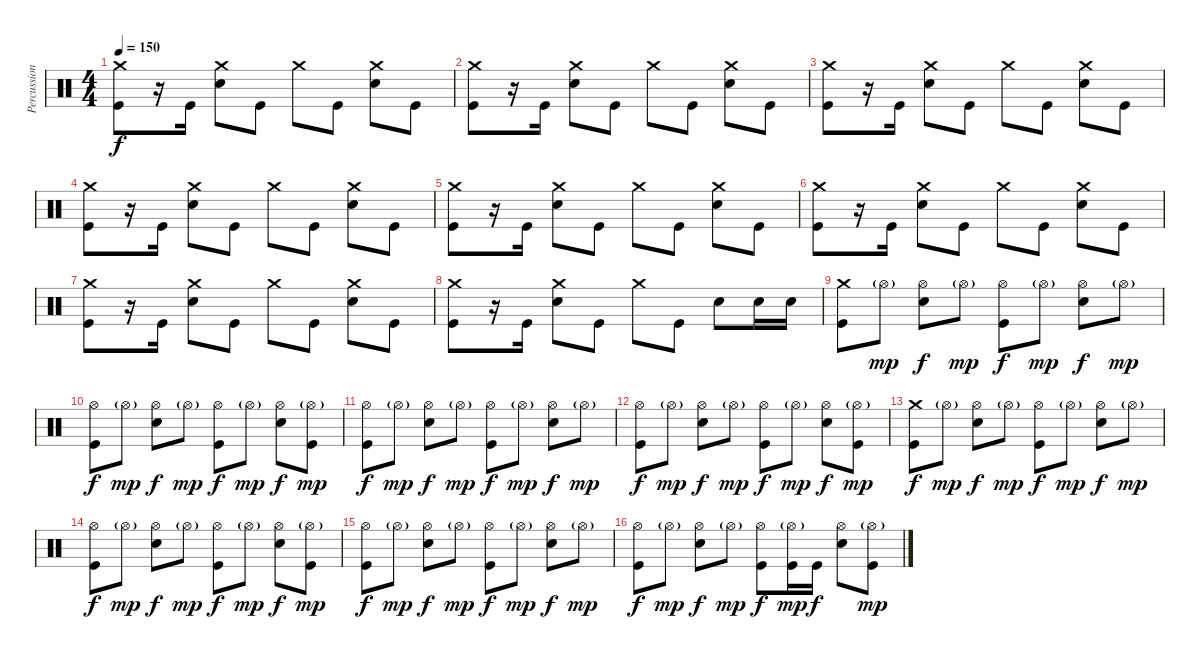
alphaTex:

\track ("Percussion" "Percussion") {instrument percussion}
\staff {score}
\articulation defaults
\ts (4 4)
\tempo 150
\clef neutral
\ks c
("Crash medium (hit)" "Kick (hit)").8{dy f} r.16 "Kick (hit)".16 ("Crash medium (hit)" "Electric Snare (hit)").8 "Kick (hit)".8 "Crash medium (hit)".8 "Kick (hit)".8 ("Crash medium (hit)" "Electric Snare (hit)").8 "Kick (hit)".8 |
("Crash medium (hit)" "Kick (hit)").8 r.16 "Kick (hit)".16 ("Crash medium (hit)" "Electric Snare (hit)").8 "Kick (hit)".8 "Crash medium (hit)".8 "Kick (hit)".8 ("Crash medium (hit)" "Electric Snare (hit)").8 "Kick (hit)".8 |
("Crash medium (hit)" "Kick (hit)").8 r.16 "Kick (hit)".16 ("Crash medium (hit)" "Electric Snare (hit)").8 "Kick (hit)".8 "Crash medium (hit)".8 "Kick (hit)".8 ("Crash medium (hit)" "Electric Snare (hit)").8 "Kick (hit)".8 |
("Crash medium (hit)" "Kick (hit)").8 r.16 "Kick (hit)".16 ("Crash medium (hit)" "Electric Snare (hit)").8 "Kick (hit)".8 "Crash medium (hit)".8 "Kick (hit)".8 ("Crash medium (hit)" "Electric Snare (hit)").8 "Kick (hit)".8 |
("Crash medium (hit)" "Kick (hit)").8 r.16 "Kick (hit)".16 ("Crash medium (hit)" "Electric Snare (hit)").8 "Kick (hit)".8 "Crash medium (hit)".8 "Kick (hit)".8 ("Crash medium (hit)" "Electric Snare (hit)").8 "Kick (hit)".8 |
("Crash medium (hit)" "Kick (hit)").8 r.16 "Kick (hit)".16 ("Crash medium (hit)" "Electric Snare (hit)").8 "Kick (hit)".8 "Crash medium (hit)".8 "Kick (hit)".8 ("Crash medium (hit)" "Electric Snare (hit)").8 "Kick (hit)".8 |
("Crash medium (hit)" "Kick (hit)").8 r.16 "Kick (hit)".16 ("Crash medium (hit)" "Electric Snare (hit)").8 "Kick (hit)".8 "Crash medium (hit)".8 "Kick (hit)".8 ("Crash medium (hit)" "Electric Snare (hit)").8 "Kick (hit)".8 |
("Crash medium (hit)" "Kick (hit)").8 r.16 "Kick (hit)".16 ("Crash medium (hit)" "Electric Snare (hit)").8 "Kick (hit)".8 "Crash medium (hit)".8 "Kick (hit)".8 "Electric Snare (hit)".8 "Electric Snare (hit)".16 "Electric Snare (hit)".16 |
("Crash medium (hit)" "Kick (hit)").8 "Hi-Hat (open)"{g}.8{dy mp} ("Hi-Hat (open)" "Electric Snare (hit)").8{dy f} "Hi-Hat (open)"{g}.8{dy mp} ("Hi-Hat (open)" "Kick (hit)").8{dy f} "Hi-Hat (open)"{g}.8{dy mp} ("Hi-Hat (open)" "Electric Snare (hit)").8{dy f} "Hi-Hat (open)"{g}.8{dy mp} |
("Hi-Hat (open)" "Kick (hit)").8{dy f} "Hi-Hat (open)"{g}.8{dy mp} ("Hi-Hat (open)" "Electric Snare (hit)").8{dy f} "Hi-Hat (open)"{g}.8{dy mp} ("Hi-Hat (open)" "Kick (hit)").8{dy f} "Hi-Hat (open)"{g}.8{dy mp} ("Hi-Hat (open)" "Electric Snare (hit)").8{dy f} ("Hi-Hat (open)"{g} "Kick (hit)").8{dy mp} |
("Hi-Hat (open)" "Kick (hit)").8{dy f} "Hi-Hat (open)"{g}.8{dy mp} ("Hi-Hat (open)" "Electric Snare (hit)").8{dy f} "Hi-Hat (open)"{g}.8{dy mp} ("Hi-Hat (open)" "Kick (hit)").8{dy f} "Hi-Hat (open)"{g}.8{dy mp} ("Hi-Hat (open)" "Electric Snare (hit)").8{dy f} "Hi-Hat (open)"{g}.8{dy mp} |
("Hi-Hat (open)" "Kick (hit)").8{dy f} "Hi-Hat (open)"{g}.8{dy mp} ("Hi-Hat (open)" "Electric Snare (hit)").8{dy f} "Hi-Hat (open)"{g}.8{dy mp} ("Hi-Hat (open)" "Kick (hit)").8{dy f} "Hi-Hat (open)"{g}.8{dy mp} ("Hi-Hat (open)" "Electric Snare (hit)").8{dy f} ("Hi-Hat (open)"{g} "Kick (hit)").8{dy mp} |
("Crash medium (hit)" "Kick (hit)").8{dy f} "Hi-Hat (open)"{g}.8{dy mp} ("Hi-Hat (open)" "Electric Snare (hit)").8{dy f} "Hi-Hat (open)"{g}.8{dy mp} ("Hi-Hat (open)" "Kick (hit)").8{dy f} "Hi-Hat (open)"{g}.8{dy mp} ("Hi-Hat (open)" "Electric Snare (hit)").8{dy f} "Hi-Hat (open)"{g}.8{dy mp} |
("Hi-Hat (open)" "Kick (hit)").8{dy f} "Hi-Hat (open)"{g}.8{dy mp} ("Hi-Hat (open)" "Electric Snare (hit)").8{dy f} "Hi-Hat (open)"{g}.8{dy mp} ("Hi-Hat (open)" "Kick (hit)").8{dy f} "Hi-Hat (open)"{g}.8{dy mp} ("Hi-Hat (open)" "Electric Snare (hit)").8{dy f} ("Hi-Hat (open)"{g} "Kick (hit)").8{dy mp} |
("Hi-Hat (open)" "Kick (hit)").8{dy f} "Hi-Hat (open)"{g}.8{dy mp} ("Hi-Hat (open)" "Electric Snare (hit)").8{dy f} "Hi-Hat (open)"{g}.8{dy mp} ("Hi-Hat (open)" "Kick (hit)").8{dy f} "Hi-Hat (open)"{g}.8{dy mp} ("Hi-Hat (open)" "Electric Snare (hit)").8{dy f} "Hi-Hat (open)"{g}.8{dy mp} |
("Hi-Hat (open)" "Kick (hit)").8{dy f} "Hi-Hat (open)"{g}.8{dy mp} ("Hi-Hat (open)" "Electric Snare (hit)").8{dy f} "Hi-Hat (open)"{g}.8{dy mp} ("Hi-Hat (open)" "Kick (hit)").8{dy f} ("Hi-Hat (open)"{g} "Kick (hit)").16{dy mp} "Kick (hit)".16{dy f} ("Hi-Hat (open)" "Electric Snare (hit)").8 ("Hi-Hat (open)"{g} "Kick (hit)").8{dy mp}
